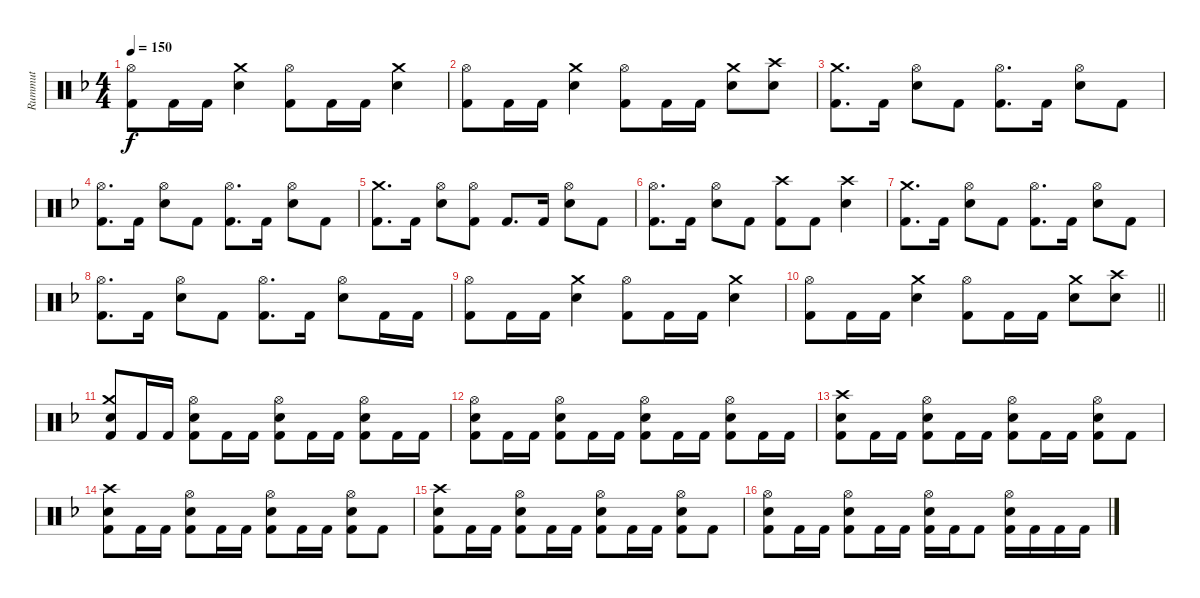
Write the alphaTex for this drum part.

\track ("Rummut" "Rummut") {instrument percussion}
\staff {score}
\articulation defaults
\ts (4 4)
\tempo 150
\clef neutral
\ks dminor
("Hi-Hat (open)" "Kick (hit) 2").8{dy f} "Kick (hit) 2".16 "Kick (hit) 2".16 ("Crash medium (hit)" "Snare (hit) 2").4 ("Hi-Hat (open)" "Kick (hit) 2").8 "Kick (hit) 2".16 "Kick (hit) 2".16 ("Crash medium (hit)" "Snare (hit) 2").4 |
("Hi-Hat (open)" "Kick (hit) 2").8 "Kick (hit) 2".16 "Kick (hit) 2".16 ("Crash medium (hit)" "Snare (hit) 2").4 ("Hi-Hat (open)" "Kick (hit) 2").8 "Kick (hit) 2".16 "Kick (hit) 2".16 ("Crash medium (hit)" "Snare (hit) 2").8 ("Crash high (hit)" "Snare (hit) 2").8 |
("Crash medium (hit)" "Kick (hit) 2").8{d} "Kick (hit) 2".16 ("Hi-Hat (open)" "Snare (hit) 2").8 "Kick (hit) 2".8 ("Hi-Hat (open)" "Kick (hit) 2").8{d} "Kick (hit) 2".16 ("Hi-Hat (open)" "Snare (hit) 2").8 "Kick (hit) 2".8 |
("Hi-Hat (open)" "Kick (hit) 2").8{d} "Kick (hit) 2".16 ("Hi-Hat (open)" "Snare (hit) 2").8 "Kick (hit) 2".8 ("Hi-Hat (open)" "Kick (hit) 2").8{d} "Kick (hit) 2".16 ("Hi-Hat (open)" "Snare (hit) 2").8 "Kick (hit) 2".8 |
("Crash medium (hit)" "Kick (hit) 2").8{d} "Kick (hit) 2".16 ("Hi-Hat (open)" "Snare (hit) 2").8 ("Hi-Hat (open)" "Kick (hit) 2").8 "Kick (hit) 2".8{d} "Kick (hit) 2".16 ("Hi-Hat (open)" "Snare (hit) 2").8 "Kick (hit) 2".8 |
("Hi-Hat (open)" "Kick (hit) 2").8{d} "Kick (hit) 2".16 ("Hi-Hat (open)" "Snare (hit) 2").8 "Kick (hit) 2".8 ("Crash high (hit)" "Kick (hit) 2").8 "Kick (hit) 2".8 ("Crash high (hit)" "Snare (hit) 2").4 |
("Crash medium (hit)" "Kick (hit) 2").8{d} "Kick (hit) 2".16 ("Hi-Hat (open)" "Snare (hit) 2").8 "Kick (hit) 2".8 ("Hi-Hat (open)" "Kick (hit) 2").8{d} "Kick (hit) 2".16 ("Hi-Hat (open)" "Snare (hit) 2").8 "Kick (hit) 2".8 |
("Hi-Hat (open)" "Kick (hit) 2").8{d} "Kick (hit) 2".16 ("Hi-Hat (open)" "Snare (hit) 2").8 "Kick (hit) 2".8 ("Hi-Hat (open)" "Kick (hit) 2").8{d} "Kick (hit) 2".16 ("Hi-Hat (open)" "Snare (hit) 2").8 "Kick (hit) 2".16 "Kick (hit) 2".16 |
("Hi-Hat (open)" "Kick (hit) 2").8 "Kick (hit) 2".16 "Kick (hit) 2".16 ("Crash medium (hit)" "Snare (hit) 2").4 ("Hi-Hat (open)" "Kick (hit) 2").8 "Kick (hit) 2".16 "Kick (hit) 2".16 ("Crash medium (hit)" "Snare (hit) 2").4 |
\barLineRight lightlight
("Hi-Hat (open)" "Kick (hit) 2").8 "Kick (hit) 2".16 "Kick (hit) 2".16 ("Crash medium (hit)" "Snare (hit) 2").4 ("Hi-Hat (open)" "Kick (hit) 2").8 "Kick (hit) 2".16 "Kick (hit) 2".16 ("Crash medium (hit)" "Snare (hit) 2").8 ("Crash high (hit)" "Snare (hit) 2").8 |
("Crash medium (hit)" "Snare (hit) 2" "Kick (hit) 2").8 "Kick (hit) 2".16 "Kick (hit) 2".16 ("Hi-Hat (open)" "Snare (hit) 2" "Kick (hit) 2").8 "Kick (hit) 2".16 "Kick (hit) 2".16 ("Hi-Hat (open)" "Snare (hit) 2" "Kick (hit) 2").8 "Kick (hit) 2".16 "Kick (hit) 2".16 ("Hi-Hat (open)" "Snare (hit) 2" "Kick (hit) 2").8 "Kick (hit) 2".16 "Kick (hit) 2".16 |
("Hi-Hat (open)" "Snare (hit) 2" "Kick (hit) 2").8 "Kick (hit) 2".16 "Kick (hit) 2".16 ("Hi-Hat (open)" "Snare (hit) 2" "Kick (hit) 2").8 "Kick (hit) 2".16 "Kick (hit) 2".16 ("Hi-Hat (open)" "Snare (hit) 2" "Kick (hit) 2").8 "Kick (hit) 2".16 "Kick (hit) 2".16 ("Hi-Hat (open)" "Snare (hit) 2" "Kick (hit) 2").8 "Kick (hit) 2".16 "Kick (hit) 2".16 |
("Crash high (hit)" "Snare (hit) 2" "Kick (hit) 2").8 "Kick (hit) 2".16 "Kick (hit) 2".16 ("Hi-Hat (open)" "Snare (hit) 2" "Kick (hit) 2").8 "Kick (hit) 2".16 "Kick (hit) 2".16 ("Hi-Hat (open)" "Snare (hit) 2" "Kick (hit) 2").8 "Kick (hit) 2".16 "Kick (hit) 2".16 ("Hi-Hat (open)" "Snare (hit) 2" "Kick (hit) 2").8 "Kick (hit) 2".8 |
("Crash high (hit)" "Snare (hit) 2" "Kick (hit) 2").8 "Kick (hit) 2".16 "Kick (hit) 2".16 ("Hi-Hat (open)" "Snare (hit) 2" "Kick (hit) 2").8 "Kick (hit) 2".16 "Kick (hit) 2".16 ("Hi-Hat (open)" "Snare (hit) 2" "Kick (hit) 2").8 "Kick (hit) 2".16 "Kick (hit) 2".16 ("Hi-Hat (open)" "Snare (hit) 2" "Kick (hit) 2").8 "Kick (hit) 2".8 |
("Crash high (hit)" "Snare (hit) 2" "Kick (hit) 2").8 "Kick (hit) 2".16 "Kick (hit) 2".16 ("Hi-Hat (open)" "Snare (hit) 2" "Kick (hit) 2").8 "Kick (hit) 2".16 "Kick (hit) 2".16 ("Hi-Hat (open)" "Snare (hit) 2" "Kick (hit) 2").8 "Kick (hit) 2".16 "Kick (hit) 2".16 ("Hi-Hat (open)" "Snare (hit) 2" "Kick (hit) 2").8 "Kick (hit) 2".8 |
("Hi-Hat (open)" "Snare (hit) 2" "Kick (hit) 2").8 "Kick (hit) 2".16 "Kick (hit) 2".16 ("Hi-Hat (open)" "Snare (hit) 2" "Kick (hit) 2").8 "Kick (hit) 2".16 "Kick (hit) 2".16 ("Hi-Hat (open)" "Snare (hit) 2" "Kick (hit) 2").16 "Kick (hit) 2".16 "Kick (hit) 2".8 ("Hi-Hat (open)" "Snare (hit) 2" "Kick (hit) 2").16 "Kick (hit) 2".16 "Kick (hit) 2".16 "Kick (hit) 2".16
